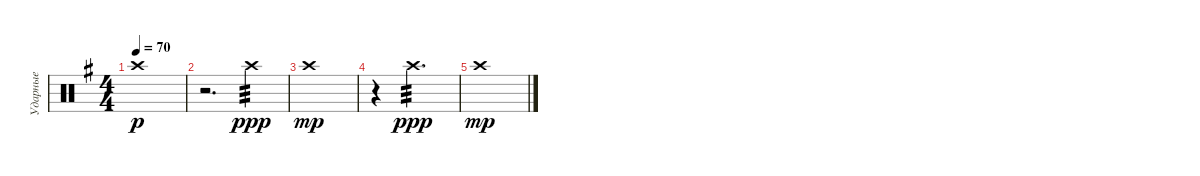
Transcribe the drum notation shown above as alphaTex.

\track ("Ударные" "Ударные") {instrument percussion}
\staff {score}
\articulation defaults
\ts (4 4)
\tempo 70
\clef neutral
\ks eminor "Crash high (hit)".1{dy p}
|
r.2{d} "Crash high (hit)".4{tp 3 dy ppp} |
"Crash high (hit)".1{dy mp} |
r.4 "Crash high (hit)".2{d tp 3 dy ppp} |
"Crash high (hit)".1{dy mp}
